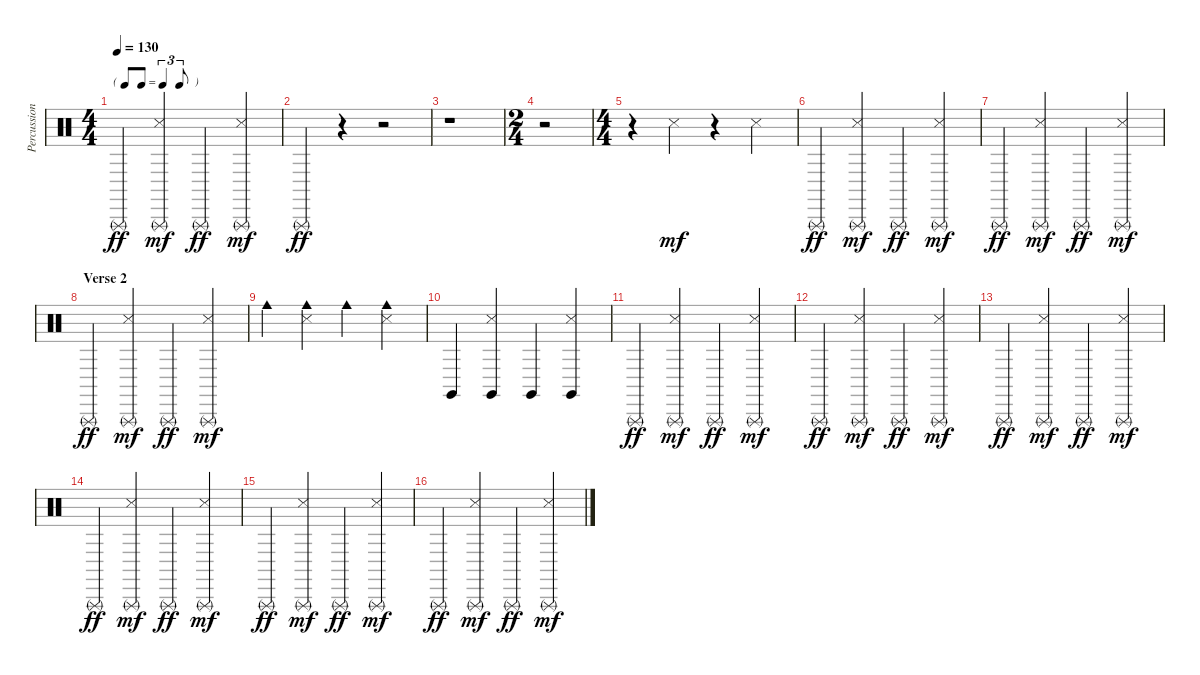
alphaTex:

\track ("Percussion" "Percussion") {instrument percussion}
\staff {score}
\articulation defaults
\ts (4 4)
\tf triplet8th
\tempo 130
\clef neutral
\ks c "Triangle (rnute)".4{dy ff}
("Triangle (rnute)" "Snare (side stick) 3").4{dy mf} "Triangle (rnute)".4{dy ff} ("Triangle (rnute)" "Snare (side stick) 3").4{dy mf} |
"Triangle (rnute)".4{dy ff} r.4 r.2 |
r.1 |
\ts (2 4)
r.2 |
\ts (4 4)
r.4 "Snare (side stick) 3".4{dy mf} r.4 "Snare (side stick) 3".4 |
"Triangle (rnute)".4{dy ff} ("Triangle (rnute)" "Snare (side stick) 3").4{dy mf} "Triangle (rnute)".4{dy ff} ("Triangle (rnute)" "Snare (side stick) 3").4{dy mf} |
"Triangle (rnute)".4{dy ff} ("Triangle (rnute)" "Snare (side stick) 3").4{dy mf} "Triangle (rnute)".4{dy ff} ("Triangle (rnute)" "Snare (side stick) 3").4{dy mf} |
\section ("" "Verse 2")
"Triangle (rnute)".4{dy ff} ("Triangle (rnute)" "Snare (side stick) 3").4{dy mf} "Triangle (rnute)".4{dy ff} ("Triangle (rnute)" "Snare (side stick) 3").4{dy mf} |
"Cowbell medium (hit)".4 ("Cowbell medium (hit)" "Snare (side stick) 3").4 "Cowbell medium (hit)".4 ("Cowbell medium (hit)" "Snare (side stick) 3").4 |
"Claves (hit)".4 ("Claves (hit)" "Snare (side stick) 3").4 "Claves (hit)".4 ("Claves (hit)" "Snare (side stick) 3").4 |
"Triangle (rnute)".4{dy ff} ("Triangle (rnute)" "Snare (side stick) 3").4{dy mf} "Triangle (rnute)".4{dy ff} ("Triangle (rnute)" "Snare (side stick) 3").4{dy mf} |
"Triangle (rnute)".4{dy ff} ("Triangle (rnute)" "Snare (side stick) 3").4{dy mf} "Triangle (rnute)".4{dy ff} ("Triangle (rnute)" "Snare (side stick) 3").4{dy mf} |
"Triangle (rnute)".4{dy ff} ("Triangle (rnute)" "Snare (side stick) 3").4{dy mf} "Triangle (rnute)".4{dy ff} ("Triangle (rnute)" "Snare (side stick) 3").4{dy mf} |
"Triangle (rnute)".4{dy ff} ("Triangle (rnute)" "Snare (side stick) 3").4{dy mf} "Triangle (rnute)".4{dy ff} ("Triangle (rnute)" "Snare (side stick) 3").4{dy mf} |
"Triangle (rnute)".4{dy ff} ("Triangle (rnute)" "Snare (side stick) 3").4{dy mf} "Triangle (rnute)".4{dy ff} ("Triangle (rnute)" "Snare (side stick) 3").4{dy mf} |
"Triangle (rnute)".4{dy ff} ("Triangle (rnute)" "Snare (side stick) 3").4{dy mf} "Triangle (rnute)".4{dy ff} ("Triangle (rnute)" "Snare (side stick) 3").4{dy mf}
